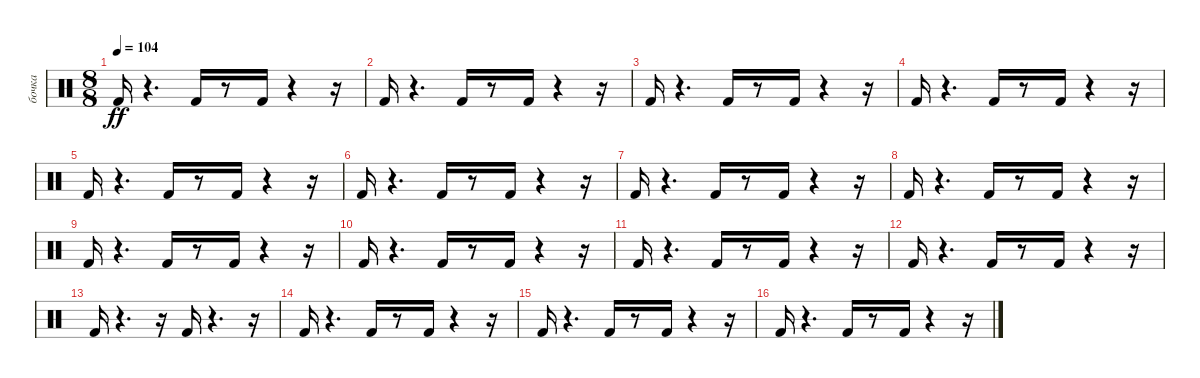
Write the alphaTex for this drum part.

\track ("бочка" "бочка") {instrument percussion}
\staff {score}
\articulation defaults
\ts (8 8)
\tempo 104
\clef neutral
\ks c "Kick (hit) 2".16{dy ff}
r.4{d} "Kick (hit) 2".16 r.8 "Kick (hit) 2".16 r.4 r.16 |
"Kick (hit) 2".16 r.4{d} "Kick (hit) 2".16 r.8 "Kick (hit) 2".16 r.4 r.16 |
"Kick (hit) 2".16 r.4{d} "Kick (hit) 2".16 r.8 "Kick (hit) 2".16 r.4 r.16 |
"Kick (hit) 2".16 r.4{d} "Kick (hit) 2".16 r.8 "Kick (hit) 2".16 r.4 r.16 |
"Kick (hit) 2".16 r.4{d} "Kick (hit) 2".16 r.8 "Kick (hit) 2".16 r.4 r.16 |
"Kick (hit) 2".16 r.4{d} "Kick (hit) 2".16 r.8 "Kick (hit) 2".16 r.4 r.16 |
"Kick (hit) 2".16 r.4{d} "Kick (hit) 2".16 r.8 "Kick (hit) 2".16 r.4 r.16 |
"Kick (hit) 2".16 r.4{d} "Kick (hit) 2".16 r.8 "Kick (hit) 2".16 r.4 r.16 |
"Kick (hit) 2".16 r.4{d} "Kick (hit) 2".16 r.8 "Kick (hit) 2".16 r.4 r.16 |
"Kick (hit) 2".16 r.4{d} "Kick (hit) 2".16 r.8 "Kick (hit) 2".16 r.4 r.16 |
"Kick (hit) 2".16 r.4{d} "Kick (hit) 2".16 r.8 "Kick (hit) 2".16 r.4 r.16 |
"Kick (hit) 2".16 r.4{d} "Kick (hit) 2".16 r.8 "Kick (hit) 2".16 r.4 r.16 |
"Kick (hit) 2".16 r.4{d} r.16 "Kick (hit) 2".16 r.4{d} r.16 |
"Kick (hit) 2".16 r.4{d} "Kick (hit) 2".16 r.8 "Kick (hit) 2".16 r.4 r.16 |
"Kick (hit) 2".16 r.4{d} "Kick (hit) 2".16 r.8 "Kick (hit) 2".16 r.4 r.16 |
"Kick (hit) 2".16 r.4{d} "Kick (hit) 2".16 r.8 "Kick (hit) 2".16 r.4 r.16
